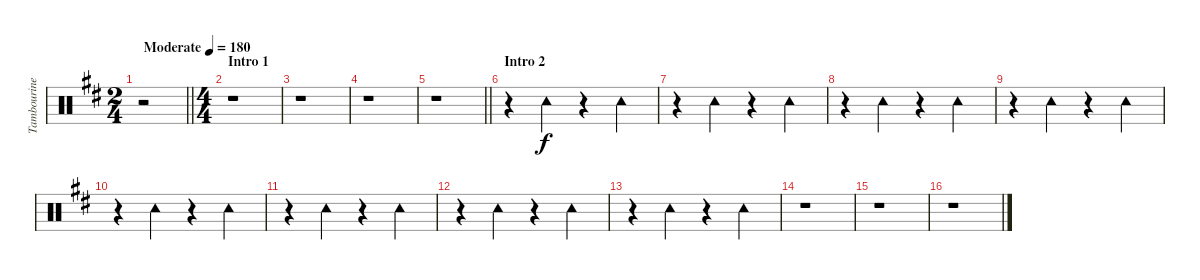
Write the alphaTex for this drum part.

\track ("Tambourine" "Tambourine") {instrument percussion}
\staff {score}
\articulation defaults
\ts (2 4)
\tempo (180 "Moderate")
\clef neutral
\barLineRight lightlight
\ks d
r.2{dy f} |
\ts (4 4)
\section ("" "Intro 1")
r.1 |
r.1 |
r.1 |
\barLineRight lightlight
r.1 |
\section ("" "Intro 2")
r.4 "Tambourine (hit)".4 r.4 "Tambourine (hit)".4 |
r.4 "Tambourine (hit)".4 r.4 "Tambourine (hit)".4 |
r.4 "Tambourine (hit)".4 r.4 "Tambourine (hit)".4 |
r.4 "Tambourine (hit)".4 r.4 "Tambourine (hit)".4 |
r.4 "Tambourine (hit)".4 r.4 "Tambourine (hit)".4 |
r.4 "Tambourine (hit)".4 r.4 "Tambourine (hit)".4 |
r.4 "Tambourine (hit)".4 r.4 "Tambourine (hit)".4 |
r.4 "Tambourine (hit)".4 r.4 "Tambourine (hit)".4 |
r.1 |
r.1 |
r.1
